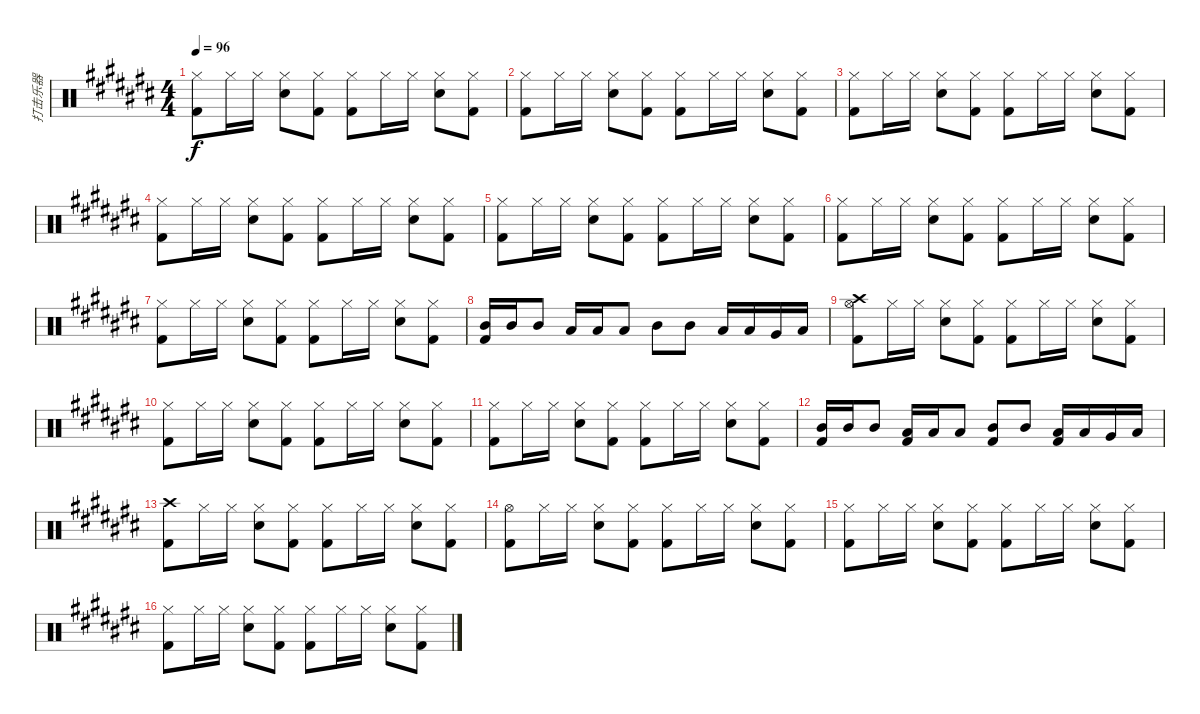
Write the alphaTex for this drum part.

\track ("打击乐器" "打击乐器") {instrument percussion}
\staff {score}
\articulation defaults
\ts (4 4)
\tempo 96
\clef neutral
\ks c#
("Hi-Hat (closed)" "Kick (hit) 2").8{dy f} "Hi-Hat (closed)".16 "Hi-Hat (closed)".16 ("Hi-Hat (closed)" "Snare (hit) 2").8 ("Hi-Hat (closed)" "Kick (hit) 2").8 ("Hi-Hat (closed)" "Kick (hit) 2").8 "Hi-Hat (closed)".16 "Hi-Hat (closed)".16 ("Hi-Hat (closed)" "Snare (hit) 2").8 ("Hi-Hat (closed)" "Kick (hit) 2").8 |
("Hi-Hat (closed)" "Kick (hit) 2").8 "Hi-Hat (closed)".16 "Hi-Hat (closed)".16 ("Hi-Hat (closed)" "Snare (hit) 2").8 ("Hi-Hat (closed)" "Kick (hit) 2").8 ("Hi-Hat (closed)" "Kick (hit) 2").8 "Hi-Hat (closed)".16 "Hi-Hat (closed)".16 ("Hi-Hat (closed)" "Snare (hit) 2").8 ("Hi-Hat (closed)" "Kick (hit) 2").8 |
("Hi-Hat (closed)" "Kick (hit) 2").8 "Hi-Hat (closed)".16 "Hi-Hat (closed)".16 ("Hi-Hat (closed)" "Snare (hit) 2").8 ("Hi-Hat (closed)" "Kick (hit) 2").8 ("Hi-Hat (closed)" "Kick (hit) 2").8 "Hi-Hat (closed)".16 "Hi-Hat (closed)".16 ("Hi-Hat (closed)" "Snare (hit) 2").8 ("Hi-Hat (closed)" "Kick (hit) 2").8 |
("Hi-Hat (closed)" "Kick (hit) 2").8 "Hi-Hat (closed)".16 "Hi-Hat (closed)".16 ("Hi-Hat (closed)" "Snare (hit) 2").8 ("Hi-Hat (closed)" "Kick (hit) 2").8 ("Hi-Hat (closed)" "Kick (hit) 2").8 "Hi-Hat (closed)".16 "Hi-Hat (closed)".16 ("Hi-Hat (closed)" "Snare (hit) 2").8 ("Hi-Hat (closed)" "Kick (hit) 2").8 |
("Hi-Hat (closed)" "Kick (hit) 2").8 "Hi-Hat (closed)".16 "Hi-Hat (closed)".16 ("Hi-Hat (closed)" "Snare (hit) 2").8 ("Hi-Hat (closed)" "Kick (hit) 2").8 ("Hi-Hat (closed)" "Kick (hit) 2").8 "Hi-Hat (closed)".16 "Hi-Hat (closed)".16 ("Hi-Hat (closed)" "Snare (hit) 2").8 ("Hi-Hat (closed)" "Kick (hit) 2").8 |
("Hi-Hat (closed)" "Kick (hit) 2").8 "Hi-Hat (closed)".16 "Hi-Hat (closed)".16 ("Hi-Hat (closed)" "Snare (hit) 2").8 ("Hi-Hat (closed)" "Kick (hit) 2").8 ("Hi-Hat (closed)" "Kick (hit) 2").8 "Hi-Hat (closed)".16 "Hi-Hat (closed)".16 ("Hi-Hat (closed)" "Snare (hit) 2").8 ("Hi-Hat (closed)" "Kick (hit) 2").8 |
("Hi-Hat (closed)" "Kick (hit) 2").8 "Hi-Hat (closed)".16 "Hi-Hat (closed)".16 ("Hi-Hat (closed)" "Snare (hit) 2").8 ("Hi-Hat (closed)" "Kick (hit) 2").8 ("Hi-Hat (closed)" "Kick (hit) 2").8 "Hi-Hat (closed)".16 "Hi-Hat (closed)".16 ("Hi-Hat (closed)" "Snare (hit) 2").8 ("Hi-Hat (closed)" "Kick (hit) 2").8 |
("Mid Tom (hit)" "Kick (hit) 2").16 "Mid Tom (hit)".16 "Mid Tom (hit)".8 "Low Tom (hit)".16 "Low Tom (hit)".16 "Low Tom (hit)".8 "Mid Tom (hit)".8 "Mid Tom (hit)".8 "Low Tom (hit)".16 "Low Tom (hit)".16 "Very Low Tom (hit)".16 "Low Floor Tom (hit)".16 |
("Crash high (hit)" "Hi-Hat (open)" "Kick (hit) 2").8 "Hi-Hat (closed)".16 "Hi-Hat (closed)".16 ("Hi-Hat (closed)" "Snare (hit) 2").8 ("Hi-Hat (closed)" "Kick (hit) 2").8 ("Hi-Hat (closed)" "Kick (hit) 2").8 "Hi-Hat (closed)".16 "Hi-Hat (closed)".16 ("Hi-Hat (closed)" "Snare (hit) 2").8 ("Hi-Hat (closed)" "Kick (hit) 2").8 |
("Hi-Hat (closed)" "Kick (hit) 2").8 "Hi-Hat (closed)".16 "Hi-Hat (closed)".16 ("Hi-Hat (closed)" "Snare (hit) 2").8 ("Hi-Hat (closed)" "Kick (hit) 2").8 ("Hi-Hat (closed)" "Kick (hit) 2").8 "Hi-Hat (closed)".16 "Hi-Hat (closed)".16 ("Hi-Hat (closed)" "Snare (hit) 2").8 ("Hi-Hat (closed)" "Kick (hit) 2").8 |
("Hi-Hat (closed)" "Kick (hit) 2").8 "Hi-Hat (closed)".16 "Hi-Hat (closed)".16 ("Hi-Hat (closed)" "Snare (hit) 2").8 ("Hi-Hat (closed)" "Kick (hit) 2").8 ("Hi-Hat (closed)" "Kick (hit) 2").8 "Hi-Hat (closed)".16 "Hi-Hat (closed)".16 ("Hi-Hat (closed)" "Snare (hit) 2").8 ("Hi-Hat (closed)" "Kick (hit) 2").8 |
("Mid Tom (hit)" "Kick (hit) 2").16 "Mid Tom (hit)".16 "Mid Tom (hit)".8 ("Low Tom (hit)" "Kick (hit) 2").16 "Low Tom (hit)".16 "Low Tom (hit)".8 ("Mid Tom (hit)" "Kick (hit) 2").8 "Mid Tom (hit)".8 ("Low Tom (hit)" "Kick (hit) 2").16 "Low Tom (hit)".16 "Very Low Tom (hit)".16 "Low Floor Tom (hit)".16 |
("Crash high (hit)" "Kick (hit) 2").8 "Hi-Hat (closed)".16 "Hi-Hat (closed)".16 ("Hi-Hat (closed)" "Snare (hit) 2").8 ("Hi-Hat (closed)" "Kick (hit) 2").8 ("Hi-Hat (closed)" "Kick (hit) 2").8 "Hi-Hat (closed)".16 "Hi-Hat (closed)".16 ("Hi-Hat (closed)" "Snare (hit) 2").8 ("Hi-Hat (closed)" "Kick (hit) 2").8 |
("Hi-Hat (open)" "Kick (hit) 2").8 "Hi-Hat (closed)".16 "Hi-Hat (closed)".16 ("Hi-Hat (closed)" "Snare (hit) 2").8 ("Hi-Hat (closed)" "Kick (hit) 2").8 ("Hi-Hat (closed)" "Kick (hit) 2").8 "Hi-Hat (closed)".16 "Hi-Hat (closed)".16 ("Hi-Hat (closed)" "Snare (hit) 2").8 ("Hi-Hat (closed)" "Kick (hit) 2").8 |
("Hi-Hat (closed)" "Kick (hit) 2").8 "Hi-Hat (closed)".16 "Hi-Hat (closed)".16 ("Hi-Hat (closed)" "Snare (hit) 2").8 ("Hi-Hat (closed)" "Kick (hit) 2").8 ("Hi-Hat (closed)" "Kick (hit) 2").8 "Hi-Hat (closed)".16 "Hi-Hat (closed)".16 ("Hi-Hat (closed)" "Snare (hit) 2").8 ("Hi-Hat (closed)" "Kick (hit) 2").8 |
("Hi-Hat (closed)" "Kick (hit) 2").8 "Hi-Hat (closed)".16 "Hi-Hat (closed)".16 ("Hi-Hat (closed)" "Snare (hit) 2").8 ("Hi-Hat (closed)" "Kick (hit) 2").8 ("Hi-Hat (closed)" "Kick (hit) 2").8 "Hi-Hat (closed)".16 "Hi-Hat (closed)".16 ("Hi-Hat (closed)" "Snare (hit) 2").8 ("Hi-Hat (closed)" "Kick (hit) 2").8
